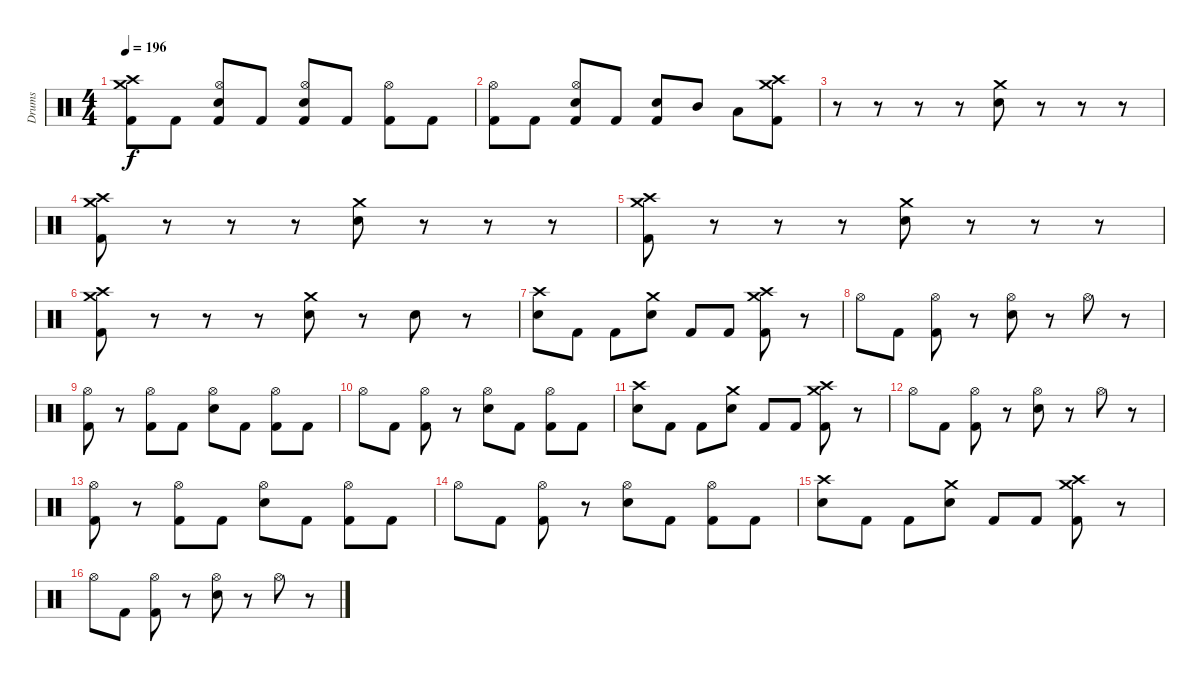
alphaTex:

\track ("Drums" "Drums") {instrument percussion}
\staff {score}
\articulation defaults
\ts (4 4)
\tempo 196
\clef neutral
\ks c
("Crash high (hit)" "Crash medium (hit)" "Kick (hit) 2").8{dy f} "Kick (hit) 2".8 ("Hi-Hat (open)" "Snare (hit) 2" "Kick (hit) 2").8 "Kick (hit) 2".8 ("Hi-Hat (open)" "Snare (hit) 2" "Kick (hit) 2").8 "Kick (hit) 2".8 ("Hi-Hat (open)" "Kick (hit) 2").8 "Kick (hit) 2".8 |
("Hi-Hat (open)" "Kick (hit) 2").8 "Kick (hit) 2".8 ("Hi-Hat (open)" "Snare (hit) 2" "Kick (hit) 2").8 "Kick (hit) 2".8 ("Snare (hit) 2" "Kick (hit) 2").8 "Mid Tom (hit)".8 "Low Tom (hit)".8 ("Crash high (hit)" "Crash medium (hit)" "Kick (hit) 2").8 |
r.8 r.8 r.8 r.8 ("Crash medium (hit)" "Snare (hit) 2").8 r.8 r.8 r.8 |
("Crash high (hit)" "Crash medium (hit)" "Kick (hit) 2").8 r.8 r.8 r.8 ("Crash medium (hit)" "Snare (hit) 2").8 r.8 r.8 r.8 |
("Crash high (hit)" "Crash medium (hit)" "Kick (hit) 2").8 r.8 r.8 r.8 ("Crash medium (hit)" "Snare (hit) 2").8 r.8 r.8 r.8 |
("Crash high (hit)" "Crash medium (hit)" "Kick (hit) 2").8 r.8 r.8 r.8 ("Crash medium (hit)" "Snare (hit) 2").8 r.8 "Snare (hit) 2".8 r.8 |
("Crash high (hit)" "Snare (hit) 2").8 "Kick (hit) 2".8 "Kick (hit) 2".8 ("Crash medium (hit)" "Snare (hit) 2").8 "Kick (hit) 2".8 "Kick (hit) 2".8 ("Crash high (hit)" "Crash medium (hit)" "Kick (hit) 2").8 r.8 |
"Hi-Hat (open)".8 "Kick (hit) 2".8 ("Hi-Hat (open)" "Kick (hit) 2").8 r.8 ("Hi-Hat (open)" "Snare (hit) 2").8 r.8 "Hi-Hat (open)".8 r.8 |
("Hi-Hat (open)" "Kick (hit) 2").8 r.8 ("Hi-Hat (open)" "Kick (hit) 2").8 "Kick (hit) 2".8 ("Hi-Hat (open)" "Snare (hit) 2").8 "Kick (hit) 2".8 ("Hi-Hat (open)" "Kick (hit) 2").8 "Kick (hit) 2".8 |
"Hi-Hat (open)".8 "Kick (hit) 2".8 ("Hi-Hat (open)" "Kick (hit) 2").8 r.8 ("Hi-Hat (open)" "Snare (hit) 2").8 "Kick (hit) 2".8 ("Hi-Hat (open)" "Kick (hit) 2").8 "Kick (hit) 2".8 |
("Crash high (hit)" "Snare (hit) 2").8 "Kick (hit) 2".8 "Kick (hit) 2".8 ("Crash medium (hit)" "Snare (hit) 2").8 "Kick (hit) 2".8 "Kick (hit) 2".8 ("Crash high (hit)" "Crash medium (hit)" "Kick (hit) 2").8 r.8 |
"Hi-Hat (open)".8 "Kick (hit) 2".8 ("Hi-Hat (open)" "Kick (hit) 2").8 r.8 ("Hi-Hat (open)" "Snare (hit) 2").8 r.8 "Hi-Hat (open)".8 r.8 |
("Hi-Hat (open)" "Kick (hit) 2").8 r.8 ("Hi-Hat (open)" "Kick (hit) 2").8 "Kick (hit) 2".8 ("Hi-Hat (open)" "Snare (hit) 2").8 "Kick (hit) 2".8 ("Hi-Hat (open)" "Kick (hit) 2").8 "Kick (hit) 2".8 |
"Hi-Hat (open)".8 "Kick (hit) 2".8 ("Hi-Hat (open)" "Kick (hit) 2").8 r.8 ("Hi-Hat (open)" "Snare (hit) 2").8 "Kick (hit) 2".8 ("Hi-Hat (open)" "Kick (hit) 2").8 "Kick (hit) 2".8 |
("Crash high (hit)" "Snare (hit) 2").8 "Kick (hit) 2".8 "Kick (hit) 2".8 ("Crash medium (hit)" "Snare (hit) 2").8 "Kick (hit) 2".8 "Kick (hit) 2".8 ("Crash high (hit)" "Crash medium (hit)" "Kick (hit) 2").8 r.8 |
"Hi-Hat (open)".8 "Kick (hit) 2".8 ("Hi-Hat (open)" "Kick (hit) 2").8 r.8 ("Hi-Hat (open)" "Snare (hit) 2").8 r.8 "Hi-Hat (open)".8 r.8
